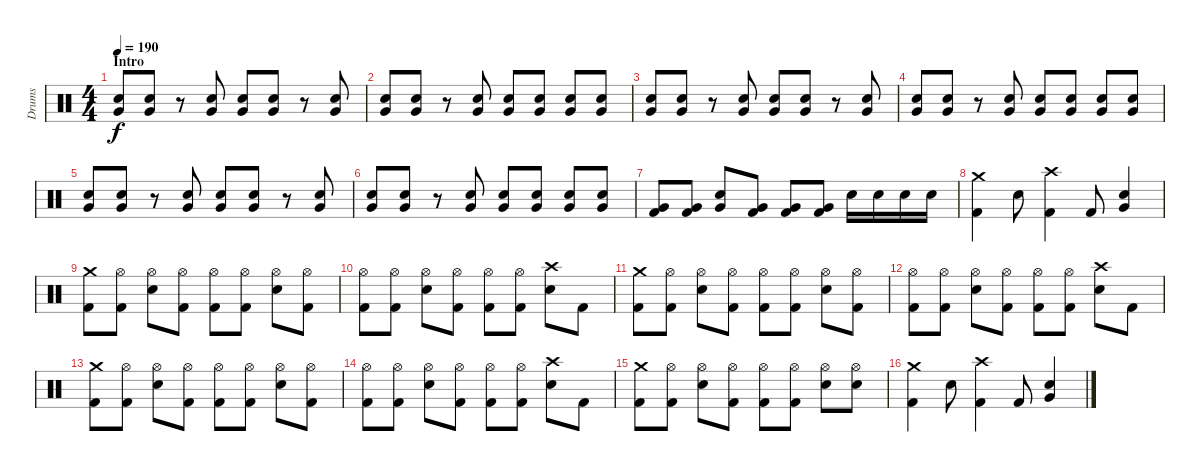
\track ("Drums" "Drums") {instrument percussion}
\staff {score}
\articulation defaults
\ts (4 4)
\section ("" "Intro")
\tempo 190
\clef neutral
\ks c
("Electric Snare (hit)" "Very Low Tom (hit)").8{dy f} ("Electric Snare (hit)" "Very Low Tom (hit)").8 r.8 ("Electric Snare (hit)" "Very Low Tom (hit)").8 ("Electric Snare (hit)" "Very Low Tom (hit)").8 ("Electric Snare (hit)" "Very Low Tom (hit)").8 r.8 ("Electric Snare (hit)" "Very Low Tom (hit)").8 |
("Electric Snare (hit)" "Very Low Tom (hit)").8 ("Electric Snare (hit)" "Very Low Tom (hit)").8 r.8 ("Electric Snare (hit)" "Very Low Tom (hit)").8 ("Electric Snare (hit)" "Very Low Tom (hit)").8 ("Electric Snare (hit)" "Very Low Tom (hit)").8 ("Electric Snare (hit)" "Very Low Tom (hit)").8 ("Electric Snare (hit)" "Very Low Tom (hit)").8 |
("Electric Snare (hit)" "Very Low Tom (hit)").8 ("Electric Snare (hit)" "Very Low Tom (hit)").8 r.8 ("Electric Snare (hit)" "Very Low Tom (hit)").8 ("Electric Snare (hit)" "Very Low Tom (hit)").8 ("Electric Snare (hit)" "Very Low Tom (hit)").8 r.8 ("Electric Snare (hit)" "Very Low Tom (hit)").8 |
("Electric Snare (hit)" "Very Low Tom (hit)").8 ("Electric Snare (hit)" "Very Low Tom (hit)").8 r.8 ("Electric Snare (hit)" "Very Low Tom (hit)").8 ("Electric Snare (hit)" "Very Low Tom (hit)").8 ("Electric Snare (hit)" "Very Low Tom (hit)").8 ("Electric Snare (hit)" "Very Low Tom (hit)").8 ("Electric Snare (hit)" "Very Low Tom (hit)").8 |
("Electric Snare (hit)" "Very Low Tom (hit)").8 ("Electric Snare (hit)" "Very Low Tom (hit)").8 r.8 ("Electric Snare (hit)" "Very Low Tom (hit)").8 ("Electric Snare (hit)" "Very Low Tom (hit)").8 ("Electric Snare (hit)" "Very Low Tom (hit)").8 r.8 ("Electric Snare (hit)" "Very Low Tom (hit)").8 |
("Electric Snare (hit)" "Very Low Tom (hit)").8 ("Electric Snare (hit)" "Very Low Tom (hit)").8 r.8 ("Electric Snare (hit)" "Very Low Tom (hit)").8 ("Electric Snare (hit)" "Very Low Tom (hit)").8 ("Electric Snare (hit)" "Very Low Tom (hit)").8 ("Electric Snare (hit)" "Very Low Tom (hit)").8 ("Electric Snare (hit)" "Very Low Tom (hit)").8 |
("Very Low Tom (hit)" "Kick (hit) 2").8 ("Very Low Tom (hit)" "Kick (hit) 2").8 ("Electric Snare (hit)" "Very Low Tom (hit)").8 ("Very Low Tom (hit)" "Kick (hit) 2").8 ("Very Low Tom (hit)" "Kick (hit) 2").8 ("Very Low Tom (hit)" "Kick (hit) 2").8 "Electric Snare (hit)".16 "Electric Snare (hit)".16 "Electric Snare (hit)".16 "Electric Snare (hit)".16 |
("Crash medium (hit)" "Kick (hit) 2").4 "Electric Snare (hit)".8 ("Crash high (hit)" "Kick (hit) 2").4 "Kick (hit) 2".8 ("Electric Snare (hit)" "Very Low Tom (hit)").4 |
("Crash medium (hit)" "Kick (hit) 2").8 ("Hi-Hat (open)" "Kick (hit) 2").8 ("Hi-Hat (open)" "Electric Snare (hit)").8 ("Hi-Hat (open)" "Kick (hit) 2").8 ("Hi-Hat (open)" "Kick (hit) 2").8 ("Hi-Hat (open)" "Kick (hit) 2").8 ("Hi-Hat (open)" "Electric Snare (hit)").8 ("Hi-Hat (open)" "Kick (hit) 2").8 |
("Hi-Hat (open)" "Kick (hit) 2").8 ("Hi-Hat (open)" "Kick (hit) 2").8 ("Hi-Hat (open)" "Electric Snare (hit)").8 ("Hi-Hat (open)" "Kick (hit) 2").8 ("Hi-Hat (open)" "Kick (hit) 2").8 ("Hi-Hat (open)" "Kick (hit) 2").8 ("Crash high (hit)" "Electric Snare (hit)").8 "Kick (hit) 2".8 |
("Crash medium (hit)" "Kick (hit) 2").8 ("Hi-Hat (open)" "Kick (hit) 2").8 ("Hi-Hat (open)" "Electric Snare (hit)").8 ("Hi-Hat (open)" "Kick (hit) 2").8 ("Hi-Hat (open)" "Kick (hit) 2").8 ("Hi-Hat (open)" "Kick (hit) 2").8 ("Hi-Hat (open)" "Electric Snare (hit)").8 ("Hi-Hat (open)" "Kick (hit) 2").8 |
("Hi-Hat (open)" "Kick (hit) 2").8 ("Hi-Hat (open)" "Kick (hit) 2").8 ("Hi-Hat (open)" "Electric Snare (hit)").8 ("Hi-Hat (open)" "Kick (hit) 2").8 ("Hi-Hat (open)" "Kick (hit) 2").8 ("Hi-Hat (open)" "Kick (hit) 2").8 ("Crash high (hit)" "Electric Snare (hit)").8 "Kick (hit) 2".8 |
("Crash medium (hit)" "Kick (hit) 2").8 ("Hi-Hat (open)" "Kick (hit) 2").8 ("Hi-Hat (open)" "Electric Snare (hit)").8 ("Hi-Hat (open)" "Kick (hit) 2").8 ("Hi-Hat (open)" "Kick (hit) 2").8 ("Hi-Hat (open)" "Kick (hit) 2").8 ("Hi-Hat (open)" "Electric Snare (hit)").8 ("Hi-Hat (open)" "Kick (hit) 2").8 |
("Hi-Hat (open)" "Kick (hit) 2").8 ("Hi-Hat (open)" "Kick (hit) 2").8 ("Hi-Hat (open)" "Electric Snare (hit)").8 ("Hi-Hat (open)" "Kick (hit) 2").8 ("Hi-Hat (open)" "Kick (hit) 2").8 ("Hi-Hat (open)" "Kick (hit) 2").8 ("Crash high (hit)" "Electric Snare (hit)").8 "Kick (hit) 2".8 |
("Crash medium (hit)" "Kick (hit) 2").8 ("Hi-Hat (open)" "Kick (hit) 2").8 ("Hi-Hat (open)" "Electric Snare (hit)").8 ("Hi-Hat (open)" "Kick (hit) 2").8 ("Hi-Hat (open)" "Kick (hit) 2").8 ("Hi-Hat (open)" "Kick (hit) 2").8 ("Hi-Hat (open)" "Electric Snare (hit)").8 ("Hi-Hat (open)" "Electric Snare (hit)").8 |
("Crash medium (hit)" "Kick (hit) 2").4 "Electric Snare (hit)".8 ("Crash high (hit)" "Kick (hit) 2").4 "Kick (hit) 2".8 ("Electric Snare (hit)" "Very Low Tom (hit)").4
